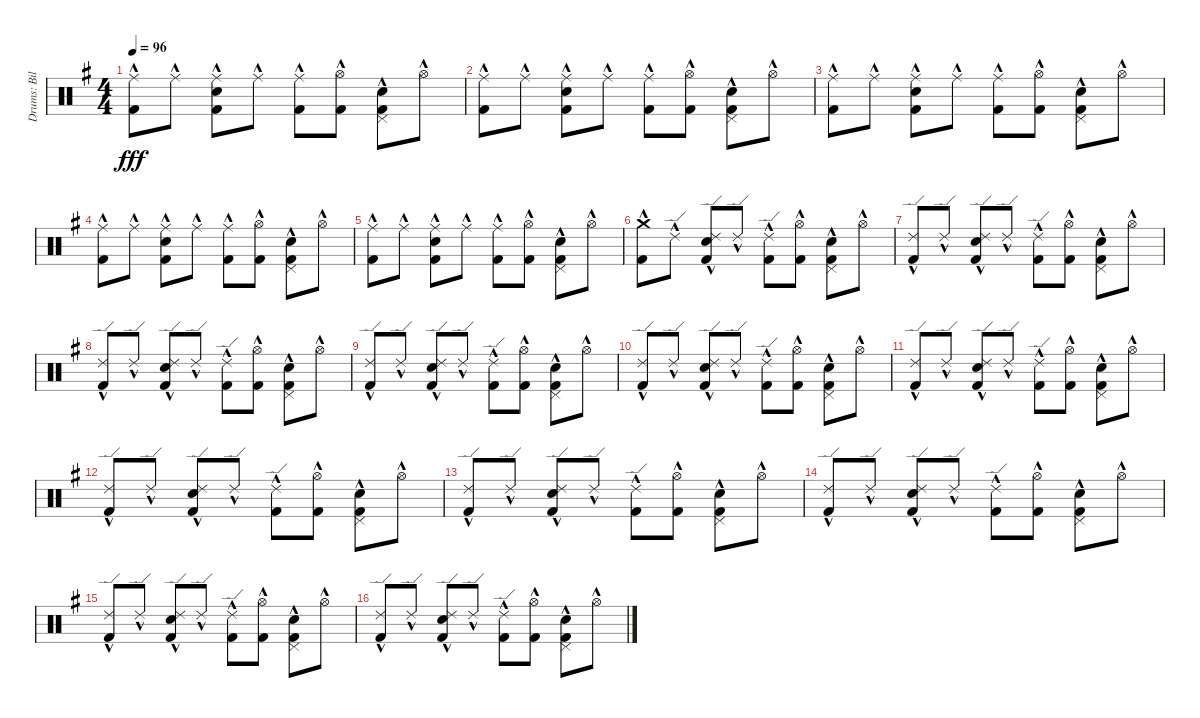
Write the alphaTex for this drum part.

\track ("Drums: Bill" "Drums: Bil") {instrument percussion}
\staff {score}
\articulation defaults
\ts (4 4)
\tempo 96
\clef neutral
\ks g
("Ride (middle)"{hac} "Kick (hit) 2"{hac}).8{dy fff} "Ride (middle)"{hac}.8 ("Ride (middle)"{hac} "Snare (hit) 2"{hac} "Kick (hit) 2"{hac}).8 "Ride (middle)"{hac}.8 ("Ride (middle)"{hac} "Kick (hit) 2"{hac}).8 ("Hi-Hat (open)"{hac} "Kick (hit) 2"{hac}).8 ("Pedal Hi-Hat (hit)"{hac} "Snare (hit) 2"{hac} "Kick (hit) 2"{hac}).8 "Hi-Hat (open)"{hac}.8 |
("Ride (middle)"{hac} "Kick (hit) 2"{hac}).8 "Ride (middle)"{hac}.8 ("Ride (middle)"{hac} "Snare (hit) 2"{hac} "Kick (hit) 2"{hac}).8 "Ride (middle)"{hac}.8 ("Ride (middle)"{hac} "Kick (hit) 2"{hac}).8 ("Hi-Hat (open)"{hac} "Kick (hit) 2"{hac}).8 ("Pedal Hi-Hat (hit)"{hac} "Snare (hit) 2"{hac} "Kick (hit) 2"{hac}).8 "Hi-Hat (open)"{hac}.8 |
("Ride (middle)"{hac} "Kick (hit) 2"{hac}).8 "Ride (middle)"{hac}.8 ("Ride (middle)"{hac} "Snare (hit) 2"{hac} "Kick (hit) 2"{hac}).8 "Ride (middle)"{hac}.8 ("Ride (middle)"{hac} "Kick (hit) 2"{hac}).8 ("Hi-Hat (open)"{hac} "Kick (hit) 2"{hac}).8 ("Pedal Hi-Hat (hit)"{hac} "Snare (hit) 2"{hac} "Kick (hit) 2"{hac}).8 "Hi-Hat (open)"{hac}.8 |
("Ride (middle)"{hac} "Kick (hit) 2"{hac}).8 "Ride (middle)"{hac}.8 ("Ride (middle)"{hac} "Snare (hit) 2"{hac} "Kick (hit) 2"{hac}).8 "Ride (middle)"{hac}.8 ("Ride (middle)"{hac} "Kick (hit) 2"{hac}).8 ("Hi-Hat (open)"{hac} "Kick (hit) 2"{hac}).8 ("Pedal Hi-Hat (hit)"{hac} "Snare (hit) 2"{hac} "Kick (hit) 2"{hac}).8 "Hi-Hat (open)"{hac}.8 |
("Ride (middle)"{hac} "Kick (hit) 2"{hac}).8 "Ride (middle)"{hac}.8 ("Ride (middle)"{hac} "Snare (hit) 2"{hac} "Kick (hit) 2"{hac}).8 "Ride (middle)"{hac}.8 ("Ride (middle)"{hac} "Kick (hit) 2"{hac}).8 ("Hi-Hat (open)"{hac} "Kick (hit) 2"{hac}).8 ("Pedal Hi-Hat (hit)"{hac} "Snare (hit) 2"{hac} "Kick (hit) 2"{hac}).8 "Hi-Hat (open)"{hac}.8 |
("Crash medium (hit)"{hac} "Kick (hit) 2"{hac}).8 "Ride (edge) 2"{hac}.8 ("Ride (edge) 2"{hac} "Snare (hit) 2"{hac} "Kick (hit) 2"{hac}).8 "Ride (edge) 2"{hac}.8 ("Ride (edge) 2"{hac} "Kick (hit) 2"{hac}).8 ("Hi-Hat (open)"{hac} "Kick (hit) 2"{hac}).8 ("Pedal Hi-Hat (hit)"{hac} "Snare (hit) 2"{hac} "Kick (hit) 2"{hac}).8 "Hi-Hat (open)"{hac}.8 |
("Ride (edge) 2"{hac} "Kick (hit) 2"{hac}).8 "Ride (edge) 2"{hac}.8 ("Ride (edge) 2"{hac} "Snare (hit) 2"{hac} "Kick (hit) 2"{hac}).8 "Ride (edge) 2"{hac}.8 ("Ride (edge) 2"{hac} "Kick (hit) 2"{hac}).8 ("Hi-Hat (open)"{hac} "Kick (hit) 2"{hac}).8 ("Pedal Hi-Hat (hit)"{hac} "Snare (hit) 2"{hac} "Kick (hit) 2"{hac}).8 "Hi-Hat (open)"{hac}.8 |
("Ride (edge) 2"{hac} "Kick (hit) 2"{hac}).8 "Ride (edge) 2"{hac}.8 ("Ride (edge) 2"{hac} "Snare (hit) 2"{hac} "Kick (hit) 2"{hac}).8 "Ride (edge) 2"{hac}.8 ("Ride (edge) 2"{hac} "Kick (hit) 2"{hac}).8 ("Hi-Hat (open)"{hac} "Kick (hit) 2"{hac}).8 ("Pedal Hi-Hat (hit)"{hac} "Snare (hit) 2"{hac} "Kick (hit) 2"{hac}).8 "Hi-Hat (open)"{hac}.8 |
("Ride (edge) 2"{hac} "Kick (hit) 2"{hac}).8 "Ride (edge) 2"{hac}.8 ("Ride (edge) 2"{hac} "Snare (hit) 2"{hac} "Kick (hit) 2"{hac}).8 "Ride (edge) 2"{hac}.8 ("Ride (edge) 2"{hac} "Kick (hit) 2"{hac}).8 ("Hi-Hat (open)"{hac} "Kick (hit) 2"{hac}).8 ("Pedal Hi-Hat (hit)"{hac} "Snare (hit) 2"{hac} "Kick (hit) 2"{hac}).8 "Hi-Hat (open)"{hac}.8 |
("Ride (edge) 2"{hac} "Kick (hit) 2"{hac}).8 "Ride (edge) 2"{hac}.8 ("Ride (edge) 2"{hac} "Snare (hit) 2"{hac} "Kick (hit) 2"{hac}).8 "Ride (edge) 2"{hac}.8 ("Ride (edge) 2"{hac} "Kick (hit) 2"{hac}).8 ("Hi-Hat (open)"{hac} "Kick (hit) 2"{hac}).8 ("Pedal Hi-Hat (hit)"{hac} "Snare (hit) 2"{hac} "Kick (hit) 2"{hac}).8 "Hi-Hat (open)"{hac}.8 |
("Ride (edge) 2"{hac} "Kick (hit) 2"{hac}).8 "Ride (edge) 2"{hac}.8 ("Ride (edge) 2"{hac} "Snare (hit) 2"{hac} "Kick (hit) 2"{hac}).8 "Ride (edge) 2"{hac}.8 ("Ride (edge) 2"{hac} "Kick (hit) 2"{hac}).8 ("Hi-Hat (open)"{hac} "Kick (hit) 2"{hac}).8 ("Pedal Hi-Hat (hit)"{hac} "Snare (hit) 2"{hac} "Kick (hit) 2"{hac}).8 "Hi-Hat (open)"{hac}.8 |
("Ride (edge) 2"{hac} "Kick (hit) 2"{hac}).8 "Ride (edge) 2"{hac}.8 ("Ride (edge) 2"{hac} "Snare (hit) 2"{hac} "Kick (hit) 2"{hac}).8 "Ride (edge) 2"{hac}.8 ("Ride (edge) 2"{hac} "Kick (hit) 2"{hac}).8 ("Hi-Hat (open)"{hac} "Kick (hit) 2"{hac}).8 ("Pedal Hi-Hat (hit)"{hac} "Snare (hit) 2"{hac} "Kick (hit) 2"{hac}).8 "Hi-Hat (open)"{hac}.8 |
("Ride (edge) 2"{hac} "Kick (hit) 2"{hac}).8 "Ride (edge) 2"{hac}.8 ("Ride (edge) 2"{hac} "Snare (hit) 2"{hac} "Kick (hit) 2"{hac}).8 "Ride (edge) 2"{hac}.8 ("Ride (edge) 2"{hac} "Kick (hit) 2"{hac}).8 ("Hi-Hat (open)"{hac} "Kick (hit) 2"{hac}).8 ("Pedal Hi-Hat (hit)"{hac} "Snare (hit) 2"{hac} "Kick (hit) 2"{hac}).8 "Hi-Hat (open)"{hac}.8 |
("Ride (edge) 2"{hac} "Kick (hit) 2"{hac}).8 "Ride (edge) 2"{hac}.8 ("Ride (edge) 2"{hac} "Snare (hit) 2"{hac} "Kick (hit) 2"{hac}).8 "Ride (edge) 2"{hac}.8 ("Ride (edge) 2"{hac} "Kick (hit) 2"{hac}).8 ("Hi-Hat (open)"{hac} "Kick (hit) 2"{hac}).8 ("Pedal Hi-Hat (hit)"{hac} "Snare (hit) 2"{hac} "Kick (hit) 2"{hac}).8 "Hi-Hat (open)"{hac}.8 |
("Ride (edge) 2"{hac} "Kick (hit) 2"{hac}).8 "Ride (edge) 2"{hac}.8 ("Ride (edge) 2"{hac} "Snare (hit) 2"{hac} "Kick (hit) 2"{hac}).8 "Ride (edge) 2"{hac}.8 ("Ride (edge) 2"{hac} "Kick (hit) 2"{hac}).8 ("Hi-Hat (open)"{hac} "Kick (hit) 2"{hac}).8 ("Pedal Hi-Hat (hit)"{hac} "Snare (hit) 2"{hac} "Kick (hit) 2"{hac}).8 "Hi-Hat (open)"{hac}.8 |
("Ride (edge) 2"{hac} "Kick (hit) 2"{hac}).8 "Ride (edge) 2"{hac}.8 ("Ride (edge) 2"{hac} "Snare (hit) 2"{hac} "Kick (hit) 2"{hac}).8 "Ride (edge) 2"{hac}.8 ("Ride (edge) 2"{hac} "Kick (hit) 2"{hac}).8 ("Hi-Hat (open)"{hac} "Kick (hit) 2"{hac}).8 ("Pedal Hi-Hat (hit)"{hac} "Snare (hit) 2"{hac} "Kick (hit) 2"{hac}).8 "Hi-Hat (open)"{hac}.8
